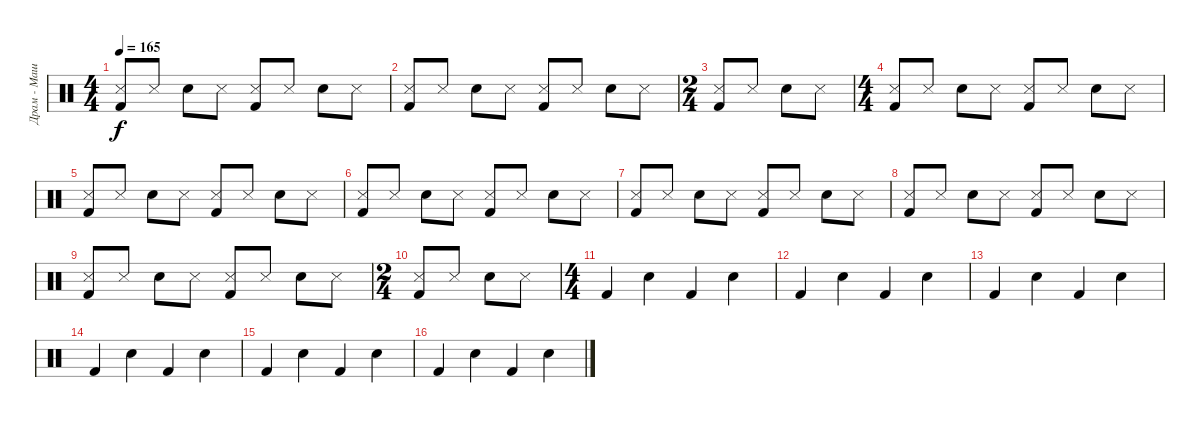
\track ("Драм - Машина" "Драм - Маш") {instrument percussion}
\staff {score}
\articulation defaults
\ts (4 4)
\tempo 165
\clef neutral
\ks c
("Metronome (hit)" "Kick (hit) 2").8{dy f} "Metronome (hit)".8 "Snare (hit) 2".8 "Metronome (hit)".8 ("Metronome (hit)" "Kick (hit) 2").8 "Metronome (hit)".8 "Snare (hit) 2".8 "Metronome (hit)".8 |
("Metronome (hit)" "Kick (hit) 2").8 "Metronome (hit)".8 "Snare (hit) 2".8 "Metronome (hit)".8 ("Metronome (hit)" "Kick (hit) 2").8 "Metronome (hit)".8 "Snare (hit) 2".8 "Metronome (hit)".8 |
\ts (2 4)
("Metronome (hit)" "Kick (hit) 2").8 "Metronome (hit)".8 "Snare (hit) 2".8 "Metronome (hit)".8 |
\ts (4 4)
("Metronome (hit)" "Kick (hit) 2").8 "Metronome (hit)".8 "Snare (hit) 2".8 "Metronome (hit)".8 ("Metronome (hit)" "Kick (hit) 2").8 "Metronome (hit)".8 "Snare (hit) 2".8 "Metronome (hit)".8 |
("Metronome (hit)" "Kick (hit) 2").8 "Metronome (hit)".8 "Snare (hit) 2".8 "Metronome (hit)".8 ("Metronome (hit)" "Kick (hit) 2").8 "Metronome (hit)".8 "Snare (hit) 2".8 "Metronome (hit)".8 |
("Metronome (hit)" "Kick (hit) 2").8 "Metronome (hit)".8 "Snare (hit) 2".8 "Metronome (hit)".8 ("Metronome (hit)" "Kick (hit) 2").8 "Metronome (hit)".8 "Snare (hit) 2".8 "Metronome (hit)".8 |
("Metronome (hit)" "Kick (hit) 2").8 "Metronome (hit)".8 "Snare (hit) 2".8 "Metronome (hit)".8 ("Metronome (hit)" "Kick (hit) 2").8 "Metronome (hit)".8 "Snare (hit) 2".8 "Metronome (hit)".8 |
("Metronome (hit)" "Kick (hit) 2").8 "Metronome (hit)".8 "Snare (hit) 2".8 "Metronome (hit)".8 ("Metronome (hit)" "Kick (hit) 2").8 "Metronome (hit)".8 "Snare (hit) 2".8 "Metronome (hit)".8 |
("Metronome (hit)" "Kick (hit) 2").8 "Metronome (hit)".8 "Snare (hit) 2".8 "Metronome (hit)".8 ("Metronome (hit)" "Kick (hit) 2").8 "Metronome (hit)".8 "Snare (hit) 2".8 "Metronome (hit)".8 |
\ts (2 4)
("Metronome (hit)" "Kick (hit) 2").8 "Metronome (hit)".8 "Snare (hit) 2".8 "Metronome (hit)".8 |
\ts (4 4)
"Kick (hit) 2".4 "Snare (hit) 2".4 "Kick (hit) 2".4 "Snare (hit) 2".4 |
"Kick (hit) 2".4 "Snare (hit) 2".4 "Kick (hit) 2".4 "Snare (hit) 2".4 |
"Kick (hit) 2".4 "Snare (hit) 2".4 "Kick (hit) 2".4 "Snare (hit) 2".4 |
"Kick (hit) 2".4 "Snare (hit) 2".4 "Kick (hit) 2".4 "Snare (hit) 2".4 |
"Kick (hit) 2".4 "Snare (hit) 2".4 "Kick (hit) 2".4 "Snare (hit) 2".4 |
"Kick (hit) 2".4 "Snare (hit) 2".4 "Kick (hit) 2".4 "Snare (hit) 2".4
